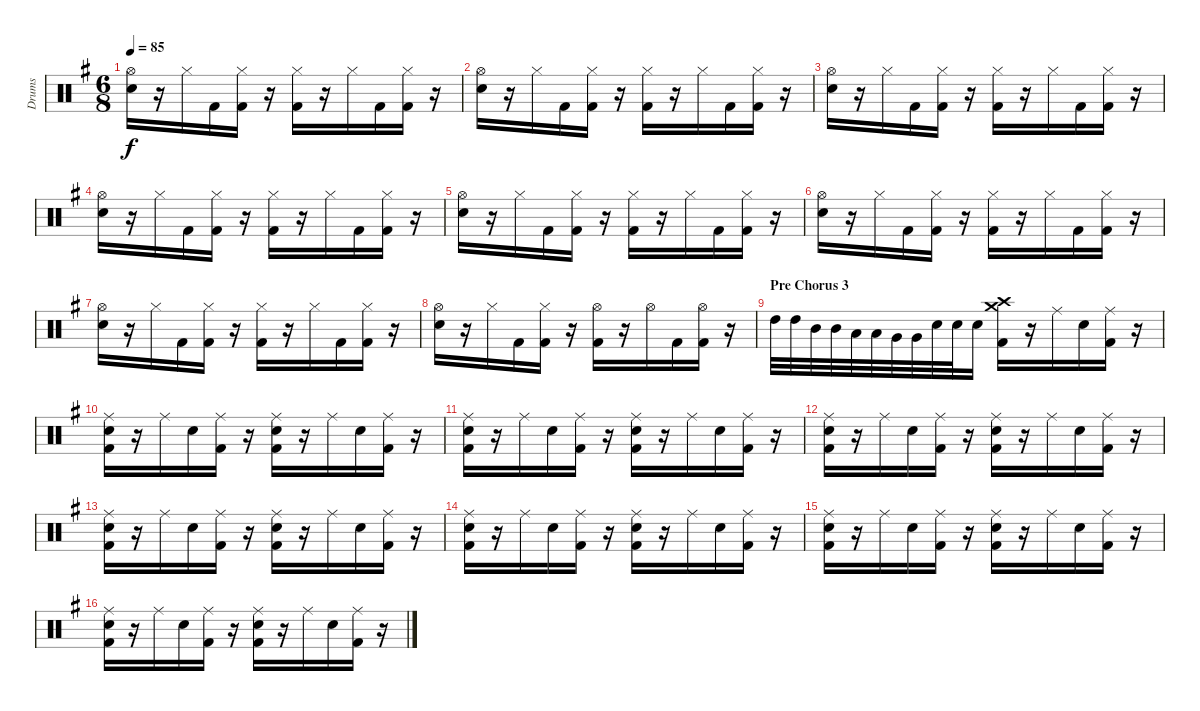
\track ("Drums" "Drums") {instrument percussion}
\staff {score}
\articulation defaults
\ts (6 8)
\tempo 85
\clef neutral
\ks eminor
("Hi-Hat (open)" "Electric Snare (hit)").16{dy f} r.16 "Hi-Hat (closed)".16 "Kick (hit) 2".16 ("Hi-Hat (closed)" "Kick (hit) 2").16 r.16 ("Hi-Hat (closed)" "Kick (hit) 2").16 r.16 "Hi-Hat (closed)".16 "Kick (hit) 2".16 ("Hi-Hat (closed)" "Kick (hit) 2").16 r.16 |
("Hi-Hat (open)" "Electric Snare (hit)").16 r.16 "Hi-Hat (closed)".16 "Kick (hit) 2".16 ("Hi-Hat (closed)" "Kick (hit) 2").16 r.16 ("Hi-Hat (closed)" "Kick (hit) 2").16 r.16 "Hi-Hat (closed)".16 "Kick (hit) 2".16 ("Hi-Hat (closed)" "Kick (hit) 2").16 r.16 |
("Hi-Hat (open)" "Electric Snare (hit)").16 r.16 "Hi-Hat (closed)".16 "Kick (hit) 2".16 ("Hi-Hat (closed)" "Kick (hit) 2").16 r.16 ("Hi-Hat (closed)" "Kick (hit) 2").16 r.16 "Hi-Hat (closed)".16 "Kick (hit) 2".16 ("Hi-Hat (closed)" "Kick (hit) 2").16 r.16 |
("Hi-Hat (open)" "Electric Snare (hit)").16 r.16 "Hi-Hat (closed)".16 "Kick (hit) 2".16 ("Hi-Hat (closed)" "Kick (hit) 2").16 r.16 ("Hi-Hat (closed)" "Kick (hit) 2").16 r.16 "Hi-Hat (closed)".16 "Kick (hit) 2".16 ("Hi-Hat (closed)" "Kick (hit) 2").16 r.16 |
("Hi-Hat (open)" "Electric Snare (hit)").16 r.16 "Hi-Hat (closed)".16 "Kick (hit) 2".16 ("Hi-Hat (closed)" "Kick (hit) 2").16 r.16 ("Hi-Hat (closed)" "Kick (hit) 2").16 r.16 "Hi-Hat (closed)".16 "Kick (hit) 2".16 ("Hi-Hat (closed)" "Kick (hit) 2").16 r.16 |
("Hi-Hat (open)" "Electric Snare (hit)").16 r.16 "Hi-Hat (closed)".16 "Kick (hit) 2".16 ("Hi-Hat (closed)" "Kick (hit) 2").16 r.16 ("Hi-Hat (closed)" "Kick (hit) 2").16 r.16 "Hi-Hat (closed)".16 "Kick (hit) 2".16 ("Hi-Hat (closed)" "Kick (hit) 2").16 r.16 |
("Hi-Hat (open)" "Electric Snare (hit)").16 r.16 "Hi-Hat (closed)".16 "Kick (hit) 2".16 ("Hi-Hat (closed)" "Kick (hit) 2").16 r.16 ("Hi-Hat (closed)" "Kick (hit) 2").16 r.16 "Hi-Hat (closed)".16 "Kick (hit) 2".16 ("Hi-Hat (closed)" "Kick (hit) 2").16 r.16 |
("Hi-Hat (open)" "Electric Snare (hit)").16 r.16 "Hi-Hat (closed)".16 "Kick (hit) 2".16 ("Hi-Hat (closed)" "Kick (hit) 2").16 r.16 ("Hi-Hat (open)" "Kick (hit) 2").16 r.16 "Hi-Hat (open)".16 "Kick (hit) 2".16 ("Hi-Hat (open)" "Kick (hit) 2").16 r.16 |
\section ("" "Pre Chorus 3")
"High Tom (hit)".32 "High Tom (hit)".32 "Mid Tom (hit)".32 "Mid Tom (hit)".32 "Low Tom (hit)".32 "Low Tom (hit)".32 "Very Low Tom (hit)".32 "Very Low Tom (hit)".32 "Electric Snare (hit)".32 "Electric Snare (hit)".32 "Electric Snare (hit)".16 ("Crash medium (hit)" "Crash high (hit)" "Kick (hit) 2").16 r.16 "Ride (middle)".16 "Electric Snare (hit)".16 ("Ride (middle)" "Kick (hit) 2").16 r.16 |
("Ride (middle)" "Electric Snare (hit)" "Kick (hit) 2").16 r.16 "Ride (middle)".16 "Electric Snare (hit)".16 ("Ride (middle)" "Kick (hit) 2").16 r.16 ("Ride (middle)" "Electric Snare (hit)" "Kick (hit) 2").16 r.16 "Ride (middle)".16 "Electric Snare (hit)".16 ("Ride (middle)" "Kick (hit) 2").16 r.16 |
("Ride (middle)" "Electric Snare (hit)" "Kick (hit) 2").16 r.16 "Ride (middle)".16 "Electric Snare (hit)".16 ("Ride (middle)" "Kick (hit) 2").16 r.16 ("Ride (middle)" "Electric Snare (hit)" "Kick (hit) 2").16 r.16 "Ride (middle)".16 "Electric Snare (hit)".16 ("Ride (middle)" "Kick (hit) 2").16 r.16 |
("Ride (middle)" "Electric Snare (hit)" "Kick (hit) 2").16 r.16 "Ride (middle)".16 "Electric Snare (hit)".16 ("Ride (middle)" "Kick (hit) 2").16 r.16 ("Ride (middle)" "Electric Snare (hit)" "Kick (hit) 2").16 r.16 "Ride (middle)".16 "Electric Snare (hit)".16 ("Ride (middle)" "Kick (hit) 2").16 r.16 |
("Ride (middle)" "Electric Snare (hit)" "Kick (hit) 2").16 r.16 "Ride (middle)".16 "Electric Snare (hit)".16 ("Ride (middle)" "Kick (hit) 2").16 r.16 ("Ride (middle)" "Electric Snare (hit)" "Kick (hit) 2").16 r.16 "Ride (middle)".16 "Electric Snare (hit)".16 ("Ride (middle)" "Kick (hit) 2").16 r.16 |
("Ride (middle)" "Electric Snare (hit)" "Kick (hit) 2").16 r.16 "Ride (middle)".16 "Electric Snare (hit)".16 ("Ride (middle)" "Kick (hit) 2").16 r.16 ("Ride (middle)" "Electric Snare (hit)" "Kick (hit) 2").16 r.16 "Ride (middle)".16 "Electric Snare (hit)".16 ("Ride (middle)" "Kick (hit) 2").16 r.16 |
("Ride (middle)" "Electric Snare (hit)" "Kick (hit) 2").16 r.16 "Ride (middle)".16 "Electric Snare (hit)".16 ("Ride (middle)" "Kick (hit) 2").16 r.16 ("Ride (middle)" "Electric Snare (hit)" "Kick (hit) 2").16 r.16 "Ride (middle)".16 "Electric Snare (hit)".16 ("Ride (middle)" "Kick (hit) 2").16 r.16 |
("Ride (middle)" "Electric Snare (hit)" "Kick (hit) 2").16 r.16 "Ride (middle)".16 "Electric Snare (hit)".16 ("Ride (middle)" "Kick (hit) 2").16 r.16 ("Ride (middle)" "Electric Snare (hit)" "Kick (hit) 2").16 r.16 "Ride (middle)".16 "Electric Snare (hit)".16 ("Ride (middle)" "Kick (hit) 2").16 r.16
